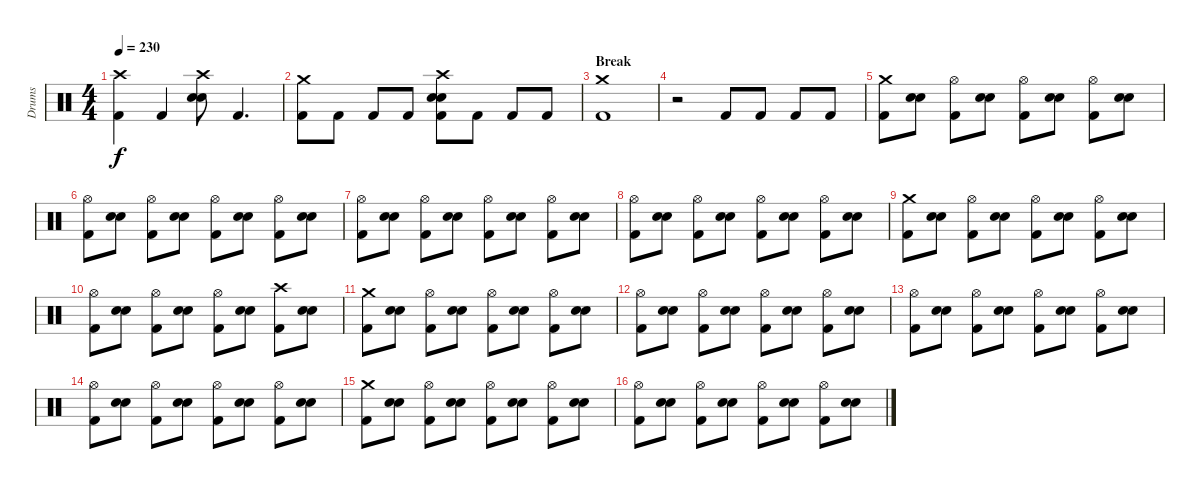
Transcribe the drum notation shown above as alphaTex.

\track ("Drums" "Drums") {instrument percussion}
\staff {score}
\articulation defaults
\ts (4 4)
\tempo 230
\clef neutral
\ks c
("Crash high (hit)" "Kick (hit) 2").4{dy f} "Kick (hit) 2".4 ("Crash high (hit)" "Electric Snare (hit)" "Electric Snare (hit)").8 "Kick (hit) 2".4{d} |
("Crash medium (hit)" "Kick (hit) 2").8 "Kick (hit) 2".8 "Kick (hit) 2".8 "Kick (hit) 2".8 ("Crash high (hit)" "Electric Snare (hit)" "Electric Snare (hit)" "Kick (hit) 2").8 "Kick (hit) 2".8 "Kick (hit) 2".8 "Kick (hit) 2".8 |
\section ("" "Break")
("Crash medium (hit)" "Kick (hit) 2").1 |
r.2 "Kick (hit) 2".8 "Kick (hit) 2".8 "Kick (hit) 2".8 "Kick (hit) 2".8 |
("Crash medium (hit)" "Kick (hit) 2").8 ("Electric Snare (hit)" "Electric Snare (hit)").8 ("Hi-Hat (open)" "Kick (hit) 2").8 ("Electric Snare (hit)" "Electric Snare (hit)").8 ("Hi-Hat (open)" "Kick (hit) 2").8 ("Electric Snare (hit)" "Electric Snare (hit)").8 ("Hi-Hat (open)" "Kick (hit) 2").8 ("Electric Snare (hit)" "Electric Snare (hit)").8 |
("Hi-Hat (open)" "Kick (hit) 2").8 ("Electric Snare (hit)" "Electric Snare (hit)").8 ("Hi-Hat (open)" "Kick (hit) 2").8 ("Electric Snare (hit)" "Electric Snare (hit)").8 ("Hi-Hat (open)" "Kick (hit) 2").8 ("Electric Snare (hit)" "Electric Snare (hit)").8 ("Hi-Hat (open)" "Kick (hit) 2").8 ("Electric Snare (hit)" "Electric Snare (hit)").8 |
("Hi-Hat (open)" "Kick (hit) 2").8 ("Electric Snare (hit)" "Electric Snare (hit)").8 ("Hi-Hat (open)" "Kick (hit) 2").8 ("Electric Snare (hit)" "Electric Snare (hit)").8 ("Hi-Hat (open)" "Kick (hit) 2").8 ("Electric Snare (hit)" "Electric Snare (hit)").8 ("Hi-Hat (open)" "Kick (hit) 2").8 ("Electric Snare (hit)" "Electric Snare (hit)").8 |
("Hi-Hat (open)" "Kick (hit) 2").8 ("Electric Snare (hit)" "Electric Snare (hit)").8 ("Hi-Hat (open)" "Kick (hit) 2").8 ("Electric Snare (hit)" "Electric Snare (hit)").8 ("Hi-Hat (open)" "Kick (hit) 2").8 ("Electric Snare (hit)" "Electric Snare (hit)").8 ("Hi-Hat (open)" "Kick (hit) 2").8 ("Electric Snare (hit)" "Electric Snare (hit)").8 |
("Crash medium (hit)" "Kick (hit) 2").8 ("Electric Snare (hit)" "Electric Snare (hit)").8 ("Hi-Hat (open)" "Kick (hit) 2").8 ("Electric Snare (hit)" "Electric Snare (hit)").8 ("Hi-Hat (open)" "Kick (hit) 2").8 ("Electric Snare (hit)" "Electric Snare (hit)").8 ("Hi-Hat (open)" "Kick (hit) 2").8 ("Electric Snare (hit)" "Electric Snare (hit)").8 |
("Hi-Hat (open)" "Kick (hit) 2").8 ("Electric Snare (hit)" "Electric Snare (hit)").8 ("Hi-Hat (open)" "Kick (hit) 2").8 ("Electric Snare (hit)" "Electric Snare (hit)").8 ("Hi-Hat (open)" "Kick (hit) 2").8 ("Electric Snare (hit)" "Electric Snare (hit)").8 ("Crash high (hit)" "Kick (hit) 2").8 ("Electric Snare (hit)" "Electric Snare (hit)").8 |
("Crash medium (hit)" "Kick (hit) 2").8 ("Electric Snare (hit)" "Electric Snare (hit)").8 ("Hi-Hat (open)" "Kick (hit) 2").8 ("Electric Snare (hit)" "Electric Snare (hit)").8 ("Hi-Hat (open)" "Kick (hit) 2").8 ("Electric Snare (hit)" "Electric Snare (hit)").8 ("Hi-Hat (open)" "Kick (hit) 2").8 ("Electric Snare (hit)" "Electric Snare (hit)").8 |
("Hi-Hat (open)" "Kick (hit) 2").8 ("Electric Snare (hit)" "Electric Snare (hit)").8 ("Hi-Hat (open)" "Kick (hit) 2").8 ("Electric Snare (hit)" "Electric Snare (hit)").8 ("Hi-Hat (open)" "Kick (hit) 2").8 ("Electric Snare (hit)" "Electric Snare (hit)").8 ("Hi-Hat (open)" "Kick (hit) 2").8 ("Electric Snare (hit)" "Electric Snare (hit)").8 |
("Hi-Hat (open)" "Kick (hit) 2").8 ("Electric Snare (hit)" "Electric Snare (hit)").8 ("Hi-Hat (open)" "Kick (hit) 2").8 ("Electric Snare (hit)" "Electric Snare (hit)").8 ("Hi-Hat (open)" "Kick (hit) 2").8 ("Electric Snare (hit)" "Electric Snare (hit)").8 ("Hi-Hat (open)" "Kick (hit) 2").8 ("Electric Snare (hit)" "Electric Snare (hit)").8 |
("Hi-Hat (open)" "Kick (hit) 2").8 ("Electric Snare (hit)" "Electric Snare (hit)").8 ("Hi-Hat (open)" "Kick (hit) 2").8 ("Electric Snare (hit)" "Electric Snare (hit)").8 ("Hi-Hat (open)" "Kick (hit) 2").8 ("Electric Snare (hit)" "Electric Snare (hit)").8 ("Hi-Hat (open)" "Kick (hit) 2").8 ("Electric Snare (hit)" "Electric Snare (hit)").8 |
("Crash medium (hit)" "Kick (hit) 2").8 ("Electric Snare (hit)" "Electric Snare (hit)").8 ("Hi-Hat (open)" "Kick (hit) 2").8 ("Electric Snare (hit)" "Electric Snare (hit)").8 ("Hi-Hat (open)" "Kick (hit) 2").8 ("Electric Snare (hit)" "Electric Snare (hit)").8 ("Hi-Hat (open)" "Kick (hit) 2").8 ("Electric Snare (hit)" "Electric Snare (hit)").8 |
("Hi-Hat (open)" "Kick (hit) 2").8 ("Electric Snare (hit)" "Electric Snare (hit)").8 ("Hi-Hat (open)" "Kick (hit) 2").8 ("Electric Snare (hit)" "Electric Snare (hit)").8 ("Hi-Hat (open)" "Kick (hit) 2").8 ("Electric Snare (hit)" "Electric Snare (hit)").8 ("Hi-Hat (open)" "Kick (hit) 2").8 ("Electric Snare (hit)" "Electric Snare (hit)").8
